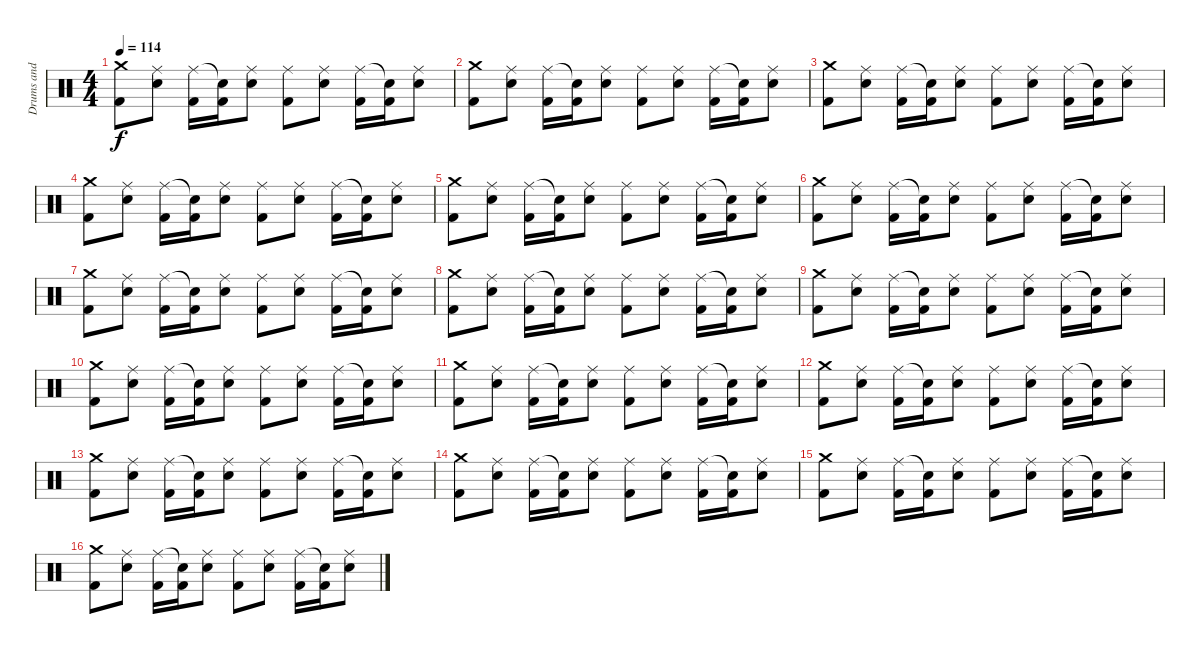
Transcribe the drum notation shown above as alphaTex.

\track ("Drums and Percussion" "Drums and ") {instrument percussion}
\staff {score}
\articulation defaults
\ts (4 4)
\tempo 114
\clef neutral
\ks c
("Crash medium (hit)" "Kick (hit) 2").8{dy f} ("Ride (middle)" "Snare (hit) 2").8 ("Ride (middle)" "Kick (hit) 2").16 ("Snare (hit)"{t} "Kick (hit) 2").16 ("Ride (middle)" "Snare (hit) 2").8 ("Ride (middle)" "Kick (hit) 2").8 ("Ride (middle)" "Snare (hit) 2").8 ("Ride (middle)" "Kick (hit) 2").16 ("Snare (hit)"{t} "Kick (hit) 2").16 ("Ride (middle)" "Snare (hit) 2").8 |
("Crash medium (hit)" "Kick (hit) 2").8 ("Ride (middle)" "Snare (hit) 2").8 ("Ride (middle)" "Kick (hit) 2").16 ("Snare (hit)"{t} "Kick (hit) 2").16 ("Ride (middle)" "Snare (hit) 2").8 ("Ride (middle)" "Kick (hit) 2").8 ("Ride (middle)" "Snare (hit) 2").8 ("Ride (middle)" "Kick (hit) 2").16 ("Snare (hit)"{t} "Kick (hit) 2").16 ("Ride (middle)" "Snare (hit) 2").8 |
("Crash medium (hit)" "Kick (hit) 2").8 ("Ride (middle)" "Snare (hit) 2").8 ("Ride (middle)" "Kick (hit) 2").16 ("Snare (hit)"{t} "Kick (hit) 2").16 ("Ride (middle)" "Snare (hit) 2").8 ("Ride (middle)" "Kick (hit) 2").8 ("Ride (middle)" "Snare (hit) 2").8 ("Ride (middle)" "Kick (hit) 2").16 ("Snare (hit)"{t} "Kick (hit) 2").16 ("Ride (middle)" "Snare (hit) 2").8 |
("Crash medium (hit)" "Kick (hit) 2").8 ("Ride (middle)" "Snare (hit) 2").8 ("Ride (middle)" "Kick (hit) 2").16 ("Snare (hit)"{t} "Kick (hit) 2").16 ("Ride (middle)" "Snare (hit) 2").8 ("Ride (middle)" "Kick (hit) 2").8 ("Ride (middle)" "Snare (hit) 2").8 ("Ride (middle)" "Kick (hit) 2").16 ("Snare (hit)"{t} "Kick (hit) 2").16 ("Ride (middle)" "Snare (hit) 2").8 |
("Crash medium (hit)" "Kick (hit) 2").8 ("Ride (middle)" "Snare (hit) 2").8 ("Ride (middle)" "Kick (hit) 2").16 ("Snare (hit)"{t} "Kick (hit) 2").16 ("Ride (middle)" "Snare (hit) 2").8 ("Ride (middle)" "Kick (hit) 2").8 ("Ride (middle)" "Snare (hit) 2").8 ("Ride (middle)" "Kick (hit) 2").16 ("Snare (hit)"{t} "Kick (hit) 2").16 ("Ride (middle)" "Snare (hit) 2").8 |
("Crash medium (hit)" "Kick (hit) 2").8 ("Ride (middle)" "Snare (hit) 2").8 ("Ride (middle)" "Kick (hit) 2").16 ("Snare (hit)"{t} "Kick (hit) 2").16 ("Ride (middle)" "Snare (hit) 2").8 ("Ride (middle)" "Kick (hit) 2").8 ("Ride (middle)" "Snare (hit) 2").8 ("Ride (middle)" "Kick (hit) 2").16 ("Snare (hit)"{t} "Kick (hit) 2").16 ("Ride (middle)" "Snare (hit) 2").8 |
("Crash medium (hit)" "Kick (hit) 2").8 ("Ride (middle)" "Snare (hit) 2").8 ("Ride (middle)" "Kick (hit) 2").16 ("Snare (hit)"{t} "Kick (hit) 2").16 ("Ride (middle)" "Snare (hit) 2").8 ("Ride (middle)" "Kick (hit) 2").8 ("Ride (middle)" "Snare (hit) 2").8 ("Ride (middle)" "Kick (hit) 2").16 ("Snare (hit)"{t} "Kick (hit) 2").16 ("Ride (middle)" "Snare (hit) 2").8 |
("Crash medium (hit)" "Kick (hit) 2").8 ("Ride (middle)" "Snare (hit) 2").8 ("Ride (middle)" "Kick (hit) 2").16 ("Snare (hit)"{t} "Kick (hit) 2").16 ("Ride (middle)" "Snare (hit) 2").8 ("Ride (middle)" "Kick (hit) 2").8 ("Ride (middle)" "Snare (hit) 2").8 ("Ride (middle)" "Kick (hit) 2").16 ("Snare (hit)"{t} "Kick (hit) 2").16 ("Ride (middle)" "Snare (hit) 2").8 |
("Crash medium (hit)" "Kick (hit) 2").8 ("Ride (middle)" "Snare (hit) 2").8 ("Ride (middle)" "Kick (hit) 2").16 ("Snare (hit)"{t} "Kick (hit) 2").16 ("Ride (middle)" "Snare (hit) 2").8 ("Ride (middle)" "Kick (hit) 2").8 ("Ride (middle)" "Snare (hit) 2").8 ("Ride (middle)" "Kick (hit) 2").16 ("Snare (hit)"{t} "Kick (hit) 2").16 ("Ride (middle)" "Snare (hit) 2").8 |
("Crash medium (hit)" "Kick (hit) 2").8 ("Ride (middle)" "Snare (hit) 2").8 ("Ride (middle)" "Kick (hit) 2").16 ("Snare (hit)"{t} "Kick (hit) 2").16 ("Ride (middle)" "Snare (hit) 2").8 ("Ride (middle)" "Kick (hit) 2").8 ("Ride (middle)" "Snare (hit) 2").8 ("Ride (middle)" "Kick (hit) 2").16 ("Snare (hit)"{t} "Kick (hit) 2").16 ("Ride (middle)" "Snare (hit) 2").8 |
("Crash medium (hit)" "Kick (hit) 2").8 ("Ride (middle)" "Snare (hit) 2").8 ("Ride (middle)" "Kick (hit) 2").16 ("Snare (hit)"{t} "Kick (hit) 2").16 ("Ride (middle)" "Snare (hit) 2").8 ("Ride (middle)" "Kick (hit) 2").8 ("Ride (middle)" "Snare (hit) 2").8 ("Ride (middle)" "Kick (hit) 2").16 ("Snare (hit)"{t} "Kick (hit) 2").16 ("Ride (middle)" "Snare (hit) 2").8 |
("Crash medium (hit)" "Kick (hit) 2").8 ("Ride (middle)" "Snare (hit) 2").8 ("Ride (middle)" "Kick (hit) 2").16 ("Snare (hit)"{t} "Kick (hit) 2").16 ("Ride (middle)" "Snare (hit) 2").8 ("Ride (middle)" "Kick (hit) 2").8 ("Ride (middle)" "Snare (hit) 2").8 ("Ride (middle)" "Kick (hit) 2").16 ("Snare (hit)"{t} "Kick (hit) 2").16 ("Ride (middle)" "Snare (hit) 2").8 |
("Crash medium (hit)" "Kick (hit) 2").8 ("Ride (middle)" "Snare (hit) 2").8 ("Ride (middle)" "Kick (hit) 2").16 ("Snare (hit)"{t} "Kick (hit) 2").16 ("Ride (middle)" "Snare (hit) 2").8 ("Ride (middle)" "Kick (hit) 2").8 ("Ride (middle)" "Snare (hit) 2").8 ("Ride (middle)" "Kick (hit) 2").16 ("Snare (hit)"{t} "Kick (hit) 2").16 ("Ride (middle)" "Snare (hit) 2").8 |
("Crash medium (hit)" "Kick (hit) 2").8 ("Ride (middle)" "Snare (hit) 2").8 ("Ride (middle)" "Kick (hit) 2").16 ("Snare (hit)"{t} "Kick (hit) 2").16 ("Ride (middle)" "Snare (hit) 2").8 ("Ride (middle)" "Kick (hit) 2").8 ("Ride (middle)" "Snare (hit) 2").8 ("Ride (middle)" "Kick (hit) 2").16 ("Snare (hit)"{t} "Kick (hit) 2").16 ("Ride (middle)" "Snare (hit) 2").8 |
("Crash medium (hit)" "Kick (hit) 2").8 ("Ride (middle)" "Snare (hit) 2").8 ("Ride (middle)" "Kick (hit) 2").16 ("Snare (hit)"{t} "Kick (hit) 2").16 ("Ride (middle)" "Snare (hit) 2").8 ("Ride (middle)" "Kick (hit) 2").8 ("Ride (middle)" "Snare (hit) 2").8 ("Ride (middle)" "Kick (hit) 2").16 ("Snare (hit)"{t} "Kick (hit) 2").16 ("Ride (middle)" "Snare (hit) 2").8 |
("Crash medium (hit)" "Kick (hit) 2").8 ("Ride (middle)" "Snare (hit) 2").8 ("Ride (middle)" "Kick (hit) 2").16 ("Snare (hit)"{t} "Kick (hit) 2").16 ("Ride (middle)" "Snare (hit) 2").8 ("Ride (middle)" "Kick (hit) 2").8 ("Ride (middle)" "Snare (hit) 2").8 ("Ride (middle)" "Kick (hit) 2").16 ("Snare (hit)"{t} "Kick (hit) 2").16 ("Ride (middle)" "Snare (hit) 2").8
